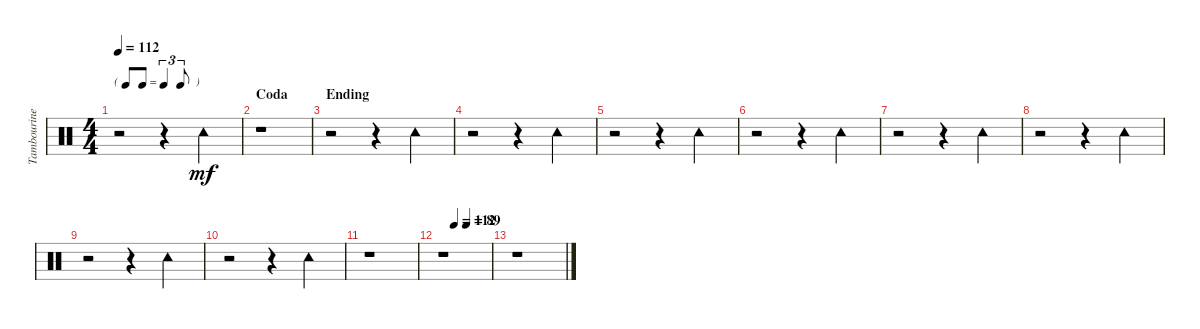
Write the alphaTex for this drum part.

\track ("Tambourine" "Tambourine") {instrument percussion}
\staff {score}
\articulation defaults
\ts (4 4)
\tf triplet8th
\tempo 112
\clef neutral
\ks c
r.2{dy mf} r.4 "Tambourine (hit)".4 |
\section ("" "Coda")
r.1 |
\section ("" "Ending")
r.2 r.4 "Tambourine (hit)".4 |
r.2 r.4 "Tambourine (hit)".4 |
r.2 r.4 "Tambourine (hit)".4 |
r.2 r.4 "Tambourine (hit)".4 |
r.2 r.4 "Tambourine (hit)".4 |
r.2 r.4 "Tambourine (hit)".4 |
r.2 r.4 "Tambourine (hit)".4 |
r.2 r.4 "Tambourine (hit)".4 |
r.1 |
\tempo (112 0.25)
\tempo (89 0.5)
r.1 |
r.1
